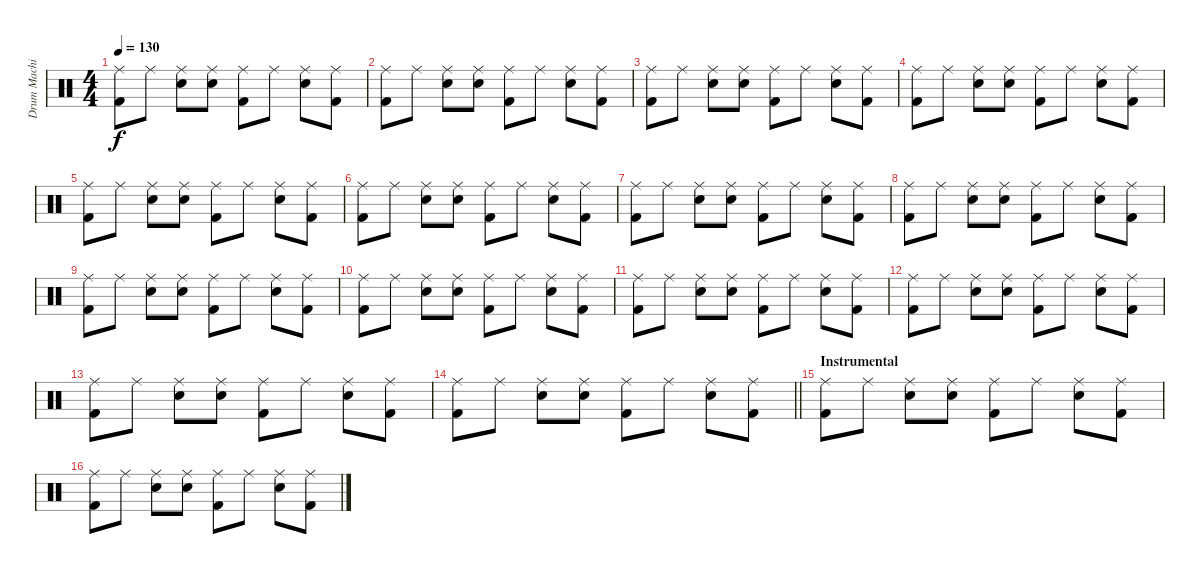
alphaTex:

\track ("Drum Machine" "Drum Machi") {instrument percussion}
\staff {score}
\articulation defaults
\ts (4 4)
\tempo 130
\clef neutral
\ks c
("Ride (middle)" "Kick (hit) 2").8{dy f} "Ride (middle)".8 ("Ride (middle)" "Snare (hit) 2").8 ("Ride (middle)" "Snare (hit) 2").8 ("Ride (middle)" "Kick (hit) 2").8 "Ride (middle)".8 ("Ride (middle)" "Snare (hit) 2").8 ("Ride (middle)" "Kick (hit) 2").8 |
("Ride (middle)" "Kick (hit) 2").8 "Ride (middle)".8 ("Ride (middle)" "Snare (hit) 2").8 ("Ride (middle)" "Snare (hit) 2").8 ("Ride (middle)" "Kick (hit) 2").8 "Ride (middle)".8 ("Ride (middle)" "Snare (hit) 2").8 ("Ride (middle)" "Kick (hit) 2").8 |
("Ride (middle)" "Kick (hit) 2").8 "Ride (middle)".8 ("Ride (middle)" "Snare (hit) 2").8 ("Ride (middle)" "Snare (hit) 2").8 ("Ride (middle)" "Kick (hit) 2").8 "Ride (middle)".8 ("Ride (middle)" "Snare (hit) 2").8 ("Ride (middle)" "Kick (hit) 2").8 |
("Ride (middle)" "Kick (hit) 2").8 "Ride (middle)".8 ("Ride (middle)" "Snare (hit) 2").8 ("Ride (middle)" "Snare (hit) 2").8 ("Ride (middle)" "Kick (hit) 2").8 "Ride (middle)".8 ("Ride (middle)" "Snare (hit) 2").8 ("Ride (middle)" "Kick (hit) 2").8 |
("Ride (middle)" "Kick (hit) 2").8 "Ride (middle)".8 ("Ride (middle)" "Snare (hit) 2").8 ("Ride (middle)" "Snare (hit) 2").8 ("Ride (middle)" "Kick (hit) 2").8 "Ride (middle)".8 ("Ride (middle)" "Snare (hit) 2").8 ("Ride (middle)" "Kick (hit) 2").8 |
("Ride (middle)" "Kick (hit) 2").8 "Ride (middle)".8 ("Ride (middle)" "Snare (hit) 2").8 ("Ride (middle)" "Snare (hit) 2").8 ("Ride (middle)" "Kick (hit) 2").8 "Ride (middle)".8 ("Ride (middle)" "Snare (hit) 2").8 ("Ride (middle)" "Kick (hit) 2").8 |
("Ride (middle)" "Kick (hit) 2").8 "Ride (middle)".8 ("Ride (middle)" "Snare (hit) 2").8 ("Ride (middle)" "Snare (hit) 2").8 ("Ride (middle)" "Kick (hit) 2").8 "Ride (middle)".8 ("Ride (middle)" "Snare (hit) 2").8 ("Ride (middle)" "Kick (hit) 2").8 |
("Ride (middle)" "Kick (hit) 2").8 "Ride (middle)".8 ("Ride (middle)" "Snare (hit) 2").8 ("Ride (middle)" "Snare (hit) 2").8 ("Ride (middle)" "Kick (hit) 2").8 "Ride (middle)".8 ("Ride (middle)" "Snare (hit) 2").8 ("Ride (middle)" "Kick (hit) 2").8 |
("Ride (middle)" "Kick (hit) 2").8 "Ride (middle)".8 ("Ride (middle)" "Snare (hit) 2").8 ("Ride (middle)" "Snare (hit) 2").8 ("Ride (middle)" "Kick (hit) 2").8 "Ride (middle)".8 ("Ride (middle)" "Snare (hit) 2").8 ("Ride (middle)" "Kick (hit) 2").8 |
("Ride (middle)" "Kick (hit) 2").8 "Ride (middle)".8 ("Ride (middle)" "Snare (hit) 2").8 ("Ride (middle)" "Snare (hit) 2").8 ("Ride (middle)" "Kick (hit) 2").8 "Ride (middle)".8 ("Ride (middle)" "Snare (hit) 2").8 ("Ride (middle)" "Kick (hit) 2").8 |
("Ride (middle)" "Kick (hit) 2").8 "Ride (middle)".8 ("Ride (middle)" "Snare (hit) 2").8 ("Ride (middle)" "Snare (hit) 2").8 ("Ride (middle)" "Kick (hit) 2").8 "Ride (middle)".8 ("Ride (middle)" "Snare (hit) 2").8 ("Ride (middle)" "Kick (hit) 2").8 |
("Ride (middle)" "Kick (hit) 2").8 "Ride (middle)".8 ("Ride (middle)" "Snare (hit) 2").8 ("Ride (middle)" "Snare (hit) 2").8 ("Ride (middle)" "Kick (hit) 2").8 "Ride (middle)".8 ("Ride (middle)" "Snare (hit) 2").8 ("Ride (middle)" "Kick (hit) 2").8 |
("Ride (middle)" "Kick (hit) 2").8 "Ride (middle)".8 ("Ride (middle)" "Snare (hit) 2").8 ("Ride (middle)" "Snare (hit) 2").8 ("Ride (middle)" "Kick (hit) 2").8 "Ride (middle)".8 ("Ride (middle)" "Snare (hit) 2").8 ("Ride (middle)" "Kick (hit) 2").8 |
\barLineRight lightlight
("Ride (middle)" "Kick (hit) 2").8 "Ride (middle)".8 ("Ride (middle)" "Snare (hit) 2").8 ("Ride (middle)" "Snare (hit) 2").8 ("Ride (middle)" "Kick (hit) 2").8 "Ride (middle)".8 ("Ride (middle)" "Snare (hit) 2").8 ("Ride (middle)" "Kick (hit) 2").8 |
\section ("" "Instrumental")
("Ride (middle)" "Kick (hit) 2").8 "Ride (middle)".8 ("Ride (middle)" "Snare (hit) 2").8 ("Ride (middle)" "Snare (hit) 2").8 ("Ride (middle)" "Kick (hit) 2").8 "Ride (middle)".8 ("Ride (middle)" "Snare (hit) 2").8 ("Ride (middle)" "Kick (hit) 2").8 |
("Ride (middle)" "Kick (hit) 2").8 "Ride (middle)".8 ("Ride (middle)" "Snare (hit) 2").8 ("Ride (middle)" "Snare (hit) 2").8 ("Ride (middle)" "Kick (hit) 2").8 "Ride (middle)".8 ("Ride (middle)" "Snare (hit) 2").8 ("Ride (middle)" "Kick (hit) 2").8
